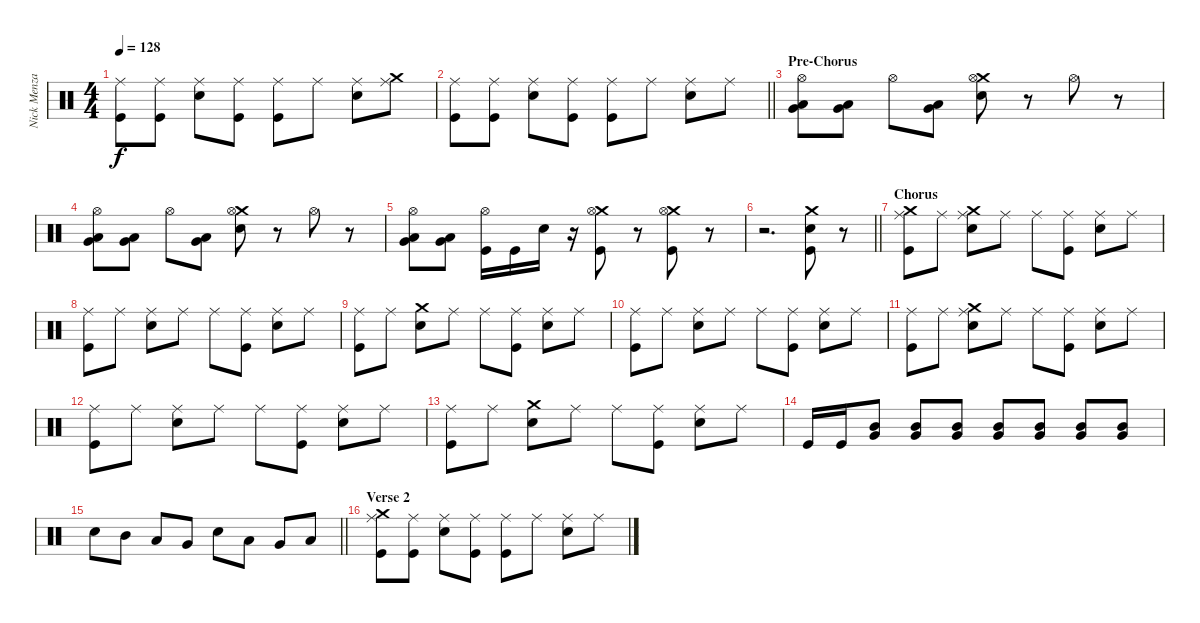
\track ("Nick Menza" "Nick Menza") {instrument percussion}
\staff {score}
\articulation defaults
\ts (4 4)
\tempo 128
\clef neutral
\ks c
("Ride (middle)" "Kick (hit)").8{dy f} ("Ride (middle)" "Kick (hit)").8 ("Ride (middle)" "Electric Snare (hit)").8 ("Ride (middle)" "Kick (hit)").8 ("Kick (hit)" "Ride (middle)").8 "Ride (middle)".8 ("Ride (middle)" "Electric Snare (hit)").8 ("Crash medium (hit)" "Ride (middle)").8 |
\barLineRight lightlight
("Ride (middle)" "Kick (hit)").8 ("Ride (middle)" "Kick (hit)").8 ("Ride (middle)" "Electric Snare (hit)").8 ("Ride (middle)" "Kick (hit)").8 ("Kick (hit)" "Ride (middle)").8 "Ride (middle)".8 ("Ride (middle)" "Electric Snare (hit)").8 "Ride (middle)".8 |
\section ("" "Pre-Chorus")
("Low Tom (hit)" "Very Low Tom (hit)" "Hi-Hat (open)").8 ("Very Low Tom (hit)" "Low Tom (hit)").8 "Hi-Hat (open)".8 ("Low Tom (hit)" "Very Low Tom (hit)").8 ("Electric Snare (hit)" "Crash medium (hit)" "Hi-Hat (open)").8 r.8 "Hi-Hat (open)".8 r.8 |
("Low Tom (hit)" "Very Low Tom (hit)" "Hi-Hat (open)").8 ("Very Low Tom (hit)" "Low Tom (hit)").8 "Hi-Hat (open)".8 ("Low Tom (hit)" "Very Low Tom (hit)").8 ("Electric Snare (hit)" "Crash medium (hit)" "Hi-Hat (open)").8 r.8 "Hi-Hat (open)".8 r.8 |
("Low Tom (hit)" "Very Low Tom (hit)" "Hi-Hat (open)").8 ("Very Low Tom (hit)" "Low Tom (hit)").8 ("Kick (hit)" "Hi-Hat (open)").16 "Kick (hit)".16 "Electric Snare (hit)".16 r.16 ("Kick (hit)" "Crash medium (hit)" "Hi-Hat (open)").8 r.8 ("Kick (hit)" "Crash medium (hit)" "Hi-Hat (open)").8 r.8 |
\barLineRight lightlight
r.2{d} ("Kick (hit)" "Electric Snare (hit)" "Crash medium (hit)").8 r.8 |
\section ("" "Chorus")
("Crash medium (hit)" "Ride (middle)" "Kick (hit)").8 "Ride (middle)".8 ("Crash medium (hit)" "Ride (middle)" "Electric Snare (hit)").8 "Ride (middle)".8 "Ride (middle)".8 ("Kick (hit)" "Ride (middle)").8 ("Ride (middle)" "Electric Snare (hit)").8 "Ride (middle)".8 |
("Ride (middle)" "Kick (hit)").8 "Ride (middle)".8 ("Electric Snare (hit)" "Ride (middle)").8 "Ride (middle)".8 "Ride (middle)".8 ("Kick (hit)" "Ride (middle)").8 ("Ride (middle)" "Electric Snare (hit)").8 "Ride (middle)".8 |
("Ride (middle)" "Kick (hit)").8 "Ride (middle)".8 ("Crash medium (hit)" "Electric Snare (hit)").8 "Ride (middle)".8 "Ride (middle)".8 ("Kick (hit)" "Ride (middle)").8 ("Ride (middle)" "Electric Snare (hit)").8 "Ride (middle)".8 |
("Ride (middle)" "Kick (hit)").8 "Ride (middle)".8 ("Electric Snare (hit)" "Ride (middle)").8 "Ride (middle)".8 "Ride (middle)".8 ("Kick (hit)" "Ride (middle)").8 ("Ride (middle)" "Electric Snare (hit)").8 "Ride (middle)".8 |
("Ride (middle)" "Kick (hit)").8 "Ride (middle)".8 ("Crash medium (hit)" "Ride (middle)" "Electric Snare (hit)").8 "Ride (middle)".8 "Ride (middle)".8 ("Kick (hit)" "Ride (middle)").8 ("Ride (middle)" "Electric Snare (hit)").8 "Ride (middle)".8 |
("Ride (middle)" "Kick (hit)").8 "Ride (middle)".8 ("Electric Snare (hit)" "Ride (middle)").8 "Ride (middle)".8 "Ride (middle)".8 ("Kick (hit)" "Ride (middle)").8 ("Ride (middle)" "Electric Snare (hit)").8 "Ride (middle)".8 |
("Ride (middle)" "Kick (hit)").8 "Ride (middle)".8 ("Crash medium (hit)" "Electric Snare (hit)").8 "Ride (middle)".8 "Ride (middle)".8 ("Kick (hit)" "Ride (middle)").8 ("Ride (middle)" "Electric Snare (hit)").8 "Ride (middle)".8 |
"Kick (hit)".16 "Kick (hit)".16 ("Mid Tom (hit)" "Very Low Tom (hit)").8 ("Mid Tom (hit)" "Very Low Tom (hit)").8 ("Mid Tom (hit)" "Very Low Tom (hit)").8 ("Mid Tom (hit)" "Very Low Tom (hit)").8 ("Mid Tom (hit)" "Very Low Tom (hit)").8 ("Mid Tom (hit)" "Very Low Tom (hit)").8 ("Mid Tom (hit)" "Very Low Tom (hit)").8 |
\barLineRight lightlight "Electric Snare (hit)".8 "Mid Tom (hit)".8 "Low Tom (hit)".8 "Very Low Tom (hit)".8 "Electric Snare (hit)".8 "Low Tom (hit)".8 "Very Low Tom (hit)".8 "Low Floor Tom (hit)".8
|
\section ("" "Verse 2")
("Ride (middle)" "Crash medium (hit)" "Kick (hit)").8 ("Ride (middle)" "Kick (hit)").8 ("Ride (middle)" "Electric Snare (hit)").8 ("Ride (middle)" "Kick (hit)").8 ("Kick (hit)" "Ride (middle)").8 "Ride (middle)".8 ("Ride (middle)" "Electric Snare (hit)").8 "Ride (middle)".8
